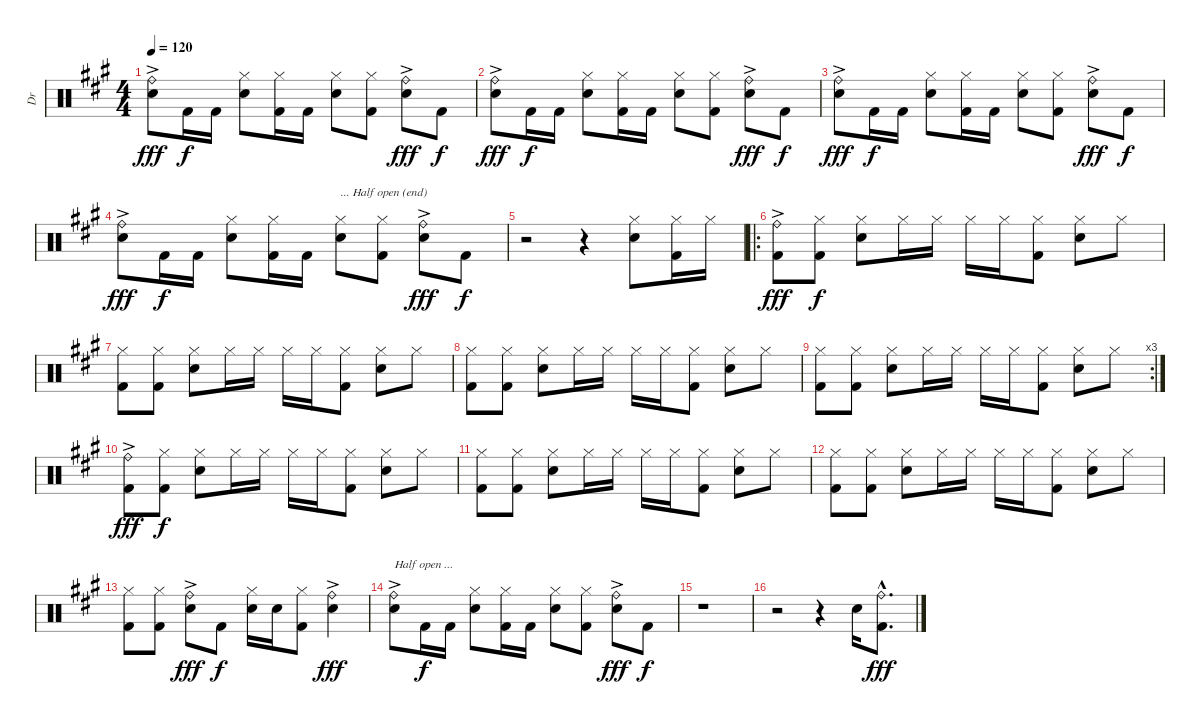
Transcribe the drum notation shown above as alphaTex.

\track ("Dr" "Dr") {instrument percussion}
\staff {score}
\articulation defaults
\ts (4 4)
\tempo 120
\clef neutral
\ks a
("Ride (bell)"{ac} "Electric Snare (hit)"{ac}).8{dy fff} "Kick (hit) 2".16{dy f} "Kick (hit) 2".16 ("Hi-Hat (closed)" "Electric Snare (hit)").8 ("Hi-Hat (closed)" "Kick (hit) 2").16 "Kick (hit) 2".16 ("Hi-Hat (closed)" "Electric Snare (hit)").8 ("Hi-Hat (closed)" "Kick (hit) 2").8 ("Ride (bell)"{ac} "Electric Snare (hit)"{ac}).8{dy fff} "Kick (hit) 2".8{dy f} |
("Ride (bell)"{ac} "Electric Snare (hit)"{ac}).8{dy fff} "Kick (hit) 2".16{dy f} "Kick (hit) 2".16 ("Hi-Hat (closed)" "Electric Snare (hit)").8 ("Hi-Hat (closed)" "Kick (hit) 2").16 "Kick (hit) 2".16 ("Hi-Hat (closed)" "Electric Snare (hit)").8 ("Hi-Hat (closed)" "Kick (hit) 2").8 ("Ride (bell)"{ac} "Electric Snare (hit)"{ac}).8{dy fff} "Kick (hit) 2".8{dy f} |
("Ride (bell)"{ac} "Electric Snare (hit)"{ac}).8{dy fff} "Kick (hit) 2".16{dy f} "Kick (hit) 2".16 ("Hi-Hat (closed)" "Electric Snare (hit)").8 ("Hi-Hat (closed)" "Kick (hit) 2").16 "Kick (hit) 2".16 ("Hi-Hat (closed)" "Electric Snare (hit)").8 ("Hi-Hat (closed)" "Kick (hit) 2").8 ("Ride (bell)"{ac} "Electric Snare (hit)"{ac}).8{dy fff} "Kick (hit) 2".8{dy f} |
("Ride (bell)"{ac} "Electric Snare (hit)"{ac}).8{dy fff} "Kick (hit) 2".16{dy f} "Kick (hit) 2".16 ("Hi-Hat (closed)" "Electric Snare (hit)").8 ("Hi-Hat (closed)" "Kick (hit) 2").16 "Kick (hit) 2".16 ("Hi-Hat (closed)" "Electric Snare (hit)").8{txt "... Half open (end)"} ("Hi-Hat (closed)" "Kick (hit) 2").8 ("Ride (bell)"{ac} "Electric Snare (hit)"{ac}).8{dy fff} "Kick (hit) 2".8{dy f} |
r.2 r.4 ("Hi-Hat (closed)" "Electric Snare (hit)").8 ("Hi-Hat (closed)" "Kick (hit) 2").16 "Hi-Hat (closed)".16 |
\ro
("Ride (bell)"{ac} "Kick (hit) 2"{ac}).8{dy fff} ("Hi-Hat (closed)" "Kick (hit) 2").8{dy f} ("Hi-Hat (closed)" "Electric Snare (hit)").8 "Hi-Hat (closed)".16 "Hi-Hat (closed)".16 "Hi-Hat (closed)".16 "Hi-Hat (closed)".16 ("Hi-Hat (closed)" "Kick (hit) 2").8 ("Hi-Hat (closed)" "Electric Snare (hit)").8 "Hi-Hat (closed)".8 |
("Hi-Hat (closed)" "Kick (hit) 2").8 ("Hi-Hat (closed)" "Kick (hit) 2").8 ("Hi-Hat (closed)" "Electric Snare (hit)").8 "Hi-Hat (closed)".16 "Hi-Hat (closed)".16 "Hi-Hat (closed)".16 "Hi-Hat (closed)".16 ("Hi-Hat (closed)" "Kick (hit) 2").8 ("Hi-Hat (closed)" "Electric Snare (hit)").8 "Hi-Hat (closed)".8 |
("Hi-Hat (closed)" "Kick (hit) 2").8 ("Hi-Hat (closed)" "Kick (hit) 2").8 ("Hi-Hat (closed)" "Electric Snare (hit)").8 "Hi-Hat (closed)".16 "Hi-Hat (closed)".16 "Hi-Hat (closed)".16 "Hi-Hat (closed)".16 ("Hi-Hat (closed)" "Kick (hit) 2").8 ("Hi-Hat (closed)" "Electric Snare (hit)").8 "Hi-Hat (closed)".8 |
\rc 3
("Hi-Hat (closed)" "Kick (hit) 2").8 ("Hi-Hat (closed)" "Kick (hit) 2").8 ("Hi-Hat (closed)" "Electric Snare (hit)").8 "Hi-Hat (closed)".16 "Hi-Hat (closed)".16 "Hi-Hat (closed)".16 "Hi-Hat (closed)".16 ("Hi-Hat (closed)" "Kick (hit) 2").8 ("Hi-Hat (closed)" "Electric Snare (hit)").8 "Hi-Hat (closed)".8 |
("Ride (bell)"{ac} "Kick (hit) 2"{ac}).8{dy fff} ("Hi-Hat (closed)" "Kick (hit) 2").8{dy f} ("Hi-Hat (closed)" "Electric Snare (hit)").8 "Hi-Hat (closed)".16 "Hi-Hat (closed)".16 "Hi-Hat (closed)".16 "Hi-Hat (closed)".16 ("Hi-Hat (closed)" "Kick (hit) 2").8 ("Hi-Hat (closed)" "Electric Snare (hit)").8 "Hi-Hat (closed)".8 |
("Hi-Hat (closed)" "Kick (hit) 2").8 ("Hi-Hat (closed)" "Kick (hit) 2").8 ("Hi-Hat (closed)" "Electric Snare (hit)").8 "Hi-Hat (closed)".16 "Hi-Hat (closed)".16 "Hi-Hat (closed)".16 "Hi-Hat (closed)".16 ("Hi-Hat (closed)" "Kick (hit) 2").8 ("Hi-Hat (closed)" "Electric Snare (hit)").8 "Hi-Hat (closed)".8 |
("Hi-Hat (closed)" "Kick (hit) 2").8 ("Hi-Hat (closed)" "Kick (hit) 2").8 ("Hi-Hat (closed)" "Electric Snare (hit)").8 "Hi-Hat (closed)".16 "Hi-Hat (closed)".16 "Hi-Hat (closed)".16 "Hi-Hat (closed)".16 ("Hi-Hat (closed)" "Kick (hit) 2").8 ("Hi-Hat (closed)" "Electric Snare (hit)").8 "Hi-Hat (closed)".8 |
("Hi-Hat (closed)" "Kick (hit) 2").8 ("Hi-Hat (closed)" "Kick (hit) 2").8 ("Ride (bell)"{ac} "Electric Snare (hit)"{ac}).8{dy fff} "Kick (hit) 2".8{dy f} ("Hi-Hat (closed)" "Electric Snare (hit)").16 "Electric Snare (hit)".16 ("Hi-Hat (closed)" "Kick (hit) 2").8 ("Ride (bell)"{ac} "Electric Snare (hit)"{ac}).4{dy fff} |
("Ride (bell)"{ac} "Electric Snare (hit)"{ac}).8{txt "Half open ..."} "Kick (hit) 2".16{dy f} "Kick (hit) 2".16 ("Hi-Hat (closed)" "Electric Snare (hit)").8 ("Hi-Hat (closed)" "Kick (hit) 2").16 "Kick (hit) 2".16 ("Hi-Hat (closed)" "Electric Snare (hit)").8 ("Hi-Hat (closed)" "Kick (hit) 2").8 ("Ride (bell)"{ac} "Electric Snare (hit)"{ac}).8{dy fff} "Kick (hit) 2".8{dy f} |
r.1 |
r.2 r.4 "Electric Snare (hit)".16 ("Ride (bell)"{hac} "Kick (hit) 2"{hac}).8{d dy fff}
